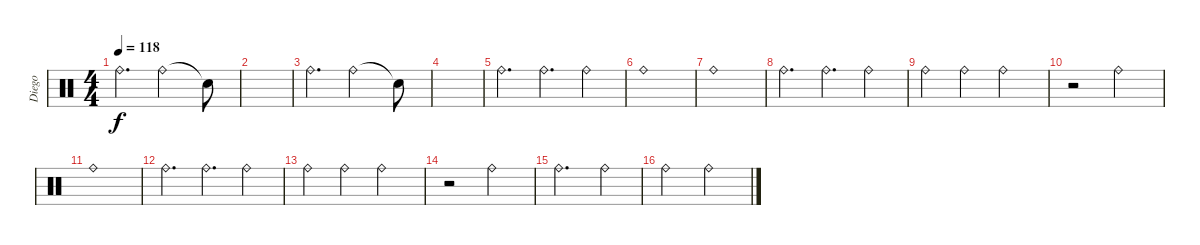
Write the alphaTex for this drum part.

\track ("Diego" "Diego") {instrument percussion}
\staff {score}
\articulation defaults
\ts (4 4)
\tempo 118
\clef neutral
\ks c "Ride (bell)".4{d dy f} "Ride (bell)".2 "Snare (hit)"{t}.8
|
|
"Ride (bell)".4{d} "Ride (bell)".2 "Snare (hit)"{t}.8 |
|
"Ride (bell)".4{d} "Ride (bell)".4{d} "Ride (bell)".4 |
"Ride (bell)".1 |
"Ride (bell)".1 |
"Ride (bell)".4{d} "Ride (bell)".4{d} "Ride (bell)".4 |
"Ride (bell)".4 "Ride (bell)".4 "Ride (bell)".2 |
r.2 "Ride (bell)".2 |
"Ride (bell)".1 |
"Ride (bell)".4{d} "Ride (bell)".4{d} "Ride (bell)".4 |
"Ride (bell)".4 "Ride (bell)".4 "Ride (bell)".2 |
r.2 "Ride (bell)".2 |
"Ride (bell)".2{d} "Ride (bell)".4 |
"Ride (bell)".2 "Ride (bell)".2
